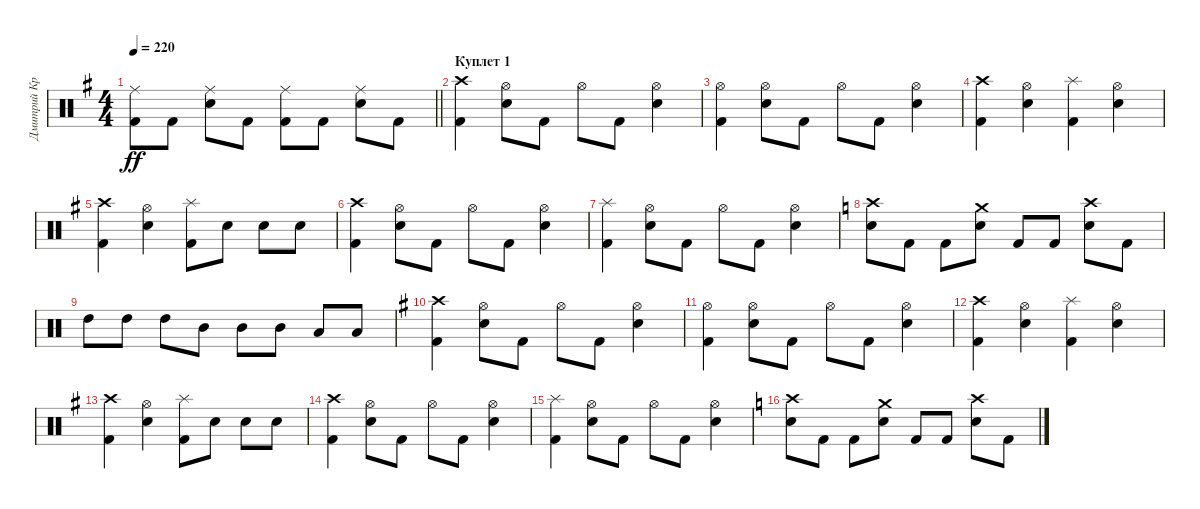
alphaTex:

\track ("Дмитрий Кривенков" "Дмитрий Кр") {instrument percussion}
\staff {score}
\articulation defaults
\ts (4 4)
\tempo 220
\clef neutral
\barLineRight lightlight
\ks g
("Ride (middle)" "Kick (hit) 2").8{dy ff} "Kick (hit) 2".8 ("Ride (middle)" "Snare (hit) 2").8 "Kick (hit) 2".8 ("Ride (middle)" "Kick (hit) 2").8 "Kick (hit) 2".8 ("Ride (middle)" "Snare (hit) 2").8 "Kick (hit) 2".8 |
\section ("" "Куплет 1")
("Crash high (hit)" "Kick (hit) 2").4 ("Hi-Hat (open)" "Snare (hit) 2").8 "Kick (hit) 2".8 "Hi-Hat (open)".8 "Kick (hit) 2".8 ("Hi-Hat (open)" "Snare (hit) 2").4 |
("Kick (hit) 2" "Hi-Hat (open)").4 ("Snare (hit) 2" "Hi-Hat (open)").8 "Kick (hit) 2".8 "Hi-Hat (open)".8 "Kick (hit) 2".8 ("Snare (hit) 2" "Hi-Hat (open)").4 |
("Crash high (hit)" "Kick (hit) 2").4 ("Hi-Hat (open)" "Snare (hit) 2").4 ("Splash (hit)" "Kick (hit) 2").4 ("Snare (hit) 2" "Hi-Hat (open)").4 |
("Crash high (hit)" "Kick (hit) 2").4 ("Hi-Hat (open)" "Snare (hit) 2").4 ("Splash (hit)" "Kick (hit) 2").8 "Snare (hit) 2".8 "Snare (hit) 2".8 "Snare (hit) 2".8 |
("Crash high (hit)" "Kick (hit) 2").4 ("Hi-Hat (open)" "Snare (hit) 2").8 "Kick (hit) 2".8 "Hi-Hat (open)".8 "Kick (hit) 2".8 ("Snare (hit) 2" "Hi-Hat (open)").4 |
("Kick (hit) 2" "Splash (hit)").4 ("Snare (hit) 2" "Hi-Hat (open)").8 "Kick (hit) 2".8 "Hi-Hat (open)".8 "Kick (hit) 2".8 ("Snare (hit) 2" "Hi-Hat (open)").4 |
\ks c
("Crash high (hit)" "Snare (hit) 2").8 "Kick (hit) 2".8 "Kick (hit) 2".8 ("Crash medium (hit)" "Snare (hit) 2").8 "Kick (hit) 2".8 "Kick (hit) 2".8 ("Crash high (hit)" "Snare (hit) 2").8 "Kick (hit) 2".8 |
"High Tom (hit)".8 "High Tom (hit)".8 "High Tom (hit)".8 "Mid Tom (hit)".8 "Mid Tom (hit)".8 "Mid Tom (hit)".8 "Low Tom (hit)".8 "Low Tom (hit)".8 |
\ks g
("Crash high (hit)" "Kick (hit) 2").4 ("Hi-Hat (open)" "Snare (hit) 2").8 "Kick (hit) 2".8 "Hi-Hat (open)".8 "Kick (hit) 2".8 ("Hi-Hat (open)" "Snare (hit) 2").4 |
("Kick (hit) 2" "Hi-Hat (open)").4 ("Snare (hit) 2" "Hi-Hat (open)").8 "Kick (hit) 2".8 "Hi-Hat (open)".8 "Kick (hit) 2".8 ("Snare (hit) 2" "Hi-Hat (open)").4 |
("Crash high (hit)" "Kick (hit) 2").4 ("Hi-Hat (open)" "Snare (hit) 2").4 ("Splash (hit)" "Kick (hit) 2").4 ("Snare (hit) 2" "Hi-Hat (open)").4 |
("Crash high (hit)" "Kick (hit) 2").4 ("Hi-Hat (open)" "Snare (hit) 2").4 ("Splash (hit)" "Kick (hit) 2").8 "Snare (hit) 2".8 "Snare (hit) 2".8 "Snare (hit) 2".8 |
("Crash high (hit)" "Kick (hit) 2").4 ("Hi-Hat (open)" "Snare (hit) 2").8 "Kick (hit) 2".8 "Hi-Hat (open)".8 "Kick (hit) 2".8 ("Snare (hit) 2" "Hi-Hat (open)").4 |
("Kick (hit) 2" "Splash (hit)").4 ("Snare (hit) 2" "Hi-Hat (open)").8 "Kick (hit) 2".8 "Hi-Hat (open)".8 "Kick (hit) 2".8 ("Snare (hit) 2" "Hi-Hat (open)").4 |
\ks c
("Crash high (hit)" "Snare (hit) 2").8 "Kick (hit) 2".8 "Kick (hit) 2".8 ("Crash medium (hit)" "Snare (hit) 2").8 "Kick (hit) 2".8 "Kick (hit) 2".8 ("Crash high (hit)" "Snare (hit) 2").8 "Kick (hit) 2".8
